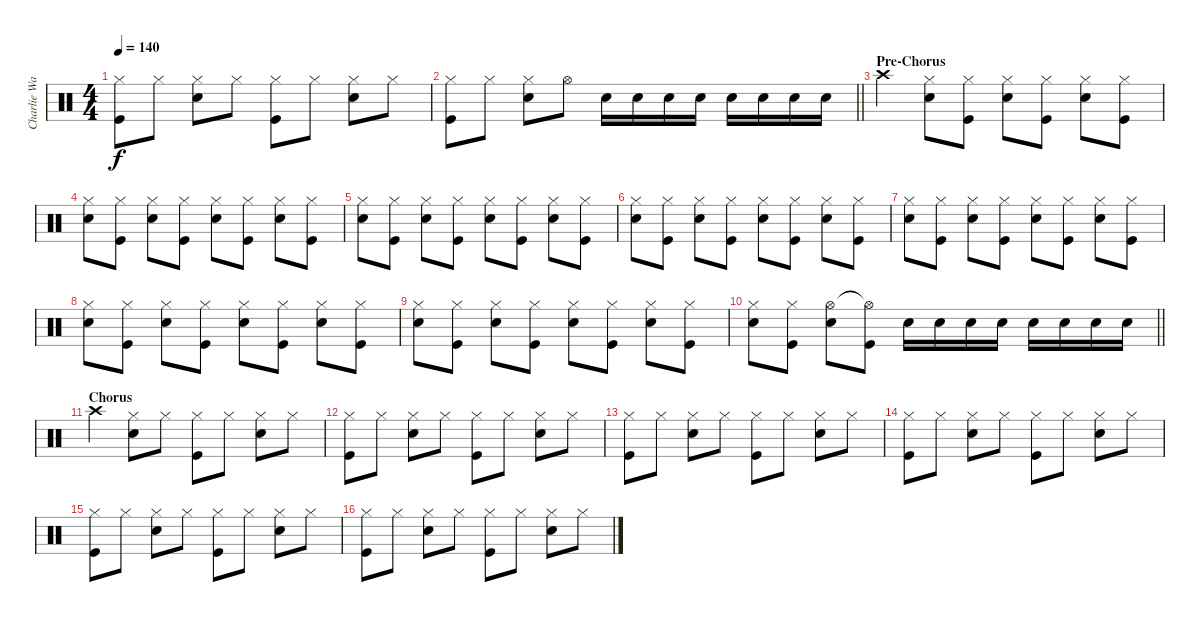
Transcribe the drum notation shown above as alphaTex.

\track ("Charlie Watts" "Charlie Wa") {instrument percussion}
\staff {score}
\articulation defaults
\ts (4 4)
\tempo 140
\clef neutral
\ks c
("Kick (hit)" "Hi-Hat (closed)").8{dy f} "Hi-Hat (closed)".8 ("Snare (hit) 2" "Hi-Hat (closed)").8 "Hi-Hat (closed)".8 ("Kick (hit)" "Hi-Hat (closed)").8 "Hi-Hat (closed)".8 ("Snare (hit) 2" "Hi-Hat (closed)").8 "Hi-Hat (closed)".8 |
\barLineRight lightlight
("Kick (hit)" "Hi-Hat (closed)").8 "Hi-Hat (closed)".8 ("Snare (hit) 2" "Hi-Hat (closed)").8 "Hi-Hat (open)".8 "Snare (hit) 2".16 "Snare (hit) 2".16 "Snare (hit) 2".16 "Snare (hit) 2".16 "Snare (hit) 2".16 "Snare (hit) 2".16 "Snare (hit) 2".16 "Snare (hit) 2".16 |
\section ("" "Pre-Chorus")
"Crash high (hit)".4 ("Snare (hit) 2" "Hi-Hat (closed)").8 ("Kick (hit)" "Hi-Hat (closed)").8 ("Snare (hit) 2" "Hi-Hat (closed)").8 ("Kick (hit)" "Hi-Hat (closed)").8 ("Snare (hit) 2" "Hi-Hat (closed)").8 ("Kick (hit)" "Hi-Hat (closed)").8 |
("Snare (hit) 2" "Hi-Hat (closed)").8 ("Kick (hit)" "Hi-Hat (closed)").8 ("Snare (hit) 2" "Hi-Hat (closed)").8 ("Kick (hit)" "Hi-Hat (closed)").8 ("Snare (hit) 2" "Hi-Hat (closed)").8 ("Kick (hit)" "Hi-Hat (closed)").8 ("Snare (hit) 2" "Hi-Hat (closed)").8 ("Kick (hit)" "Hi-Hat (closed)").8 |
("Snare (hit) 2" "Hi-Hat (closed)").8 ("Kick (hit)" "Hi-Hat (closed)").8 ("Snare (hit) 2" "Hi-Hat (closed)").8 ("Kick (hit)" "Hi-Hat (closed)").8 ("Snare (hit) 2" "Hi-Hat (closed)").8 ("Kick (hit)" "Hi-Hat (closed)").8 ("Snare (hit) 2" "Hi-Hat (closed)").8 ("Kick (hit)" "Hi-Hat (closed)").8 |
("Snare (hit) 2" "Hi-Hat (closed)").8 ("Kick (hit)" "Hi-Hat (closed)").8 ("Snare (hit) 2" "Hi-Hat (closed)").8 ("Kick (hit)" "Hi-Hat (closed)").8 ("Snare (hit) 2" "Hi-Hat (closed)").8 ("Kick (hit)" "Hi-Hat (closed)").8 ("Snare (hit) 2" "Hi-Hat (closed)").8 ("Kick (hit)" "Hi-Hat (closed)").8 |
("Snare (hit) 2" "Hi-Hat (closed)").8 ("Kick (hit)" "Hi-Hat (closed)").8 ("Snare (hit) 2" "Hi-Hat (closed)").8 ("Kick (hit)" "Hi-Hat (closed)").8 ("Snare (hit) 2" "Hi-Hat (closed)").8 ("Kick (hit)" "Hi-Hat (closed)").8 ("Snare (hit) 2" "Hi-Hat (closed)").8 ("Kick (hit)" "Hi-Hat (closed)").8 |
("Snare (hit) 2" "Hi-Hat (closed)").8 ("Kick (hit)" "Hi-Hat (closed)").8 ("Snare (hit) 2" "Hi-Hat (closed)").8 ("Kick (hit)" "Hi-Hat (closed)").8 ("Snare (hit) 2" "Hi-Hat (closed)").8 ("Kick (hit)" "Hi-Hat (closed)").8 ("Snare (hit) 2" "Hi-Hat (closed)").8 ("Kick (hit)" "Hi-Hat (closed)").8 |
("Snare (hit) 2" "Hi-Hat (closed)").8 ("Kick (hit)" "Hi-Hat (closed)").8 ("Snare (hit) 2" "Hi-Hat (closed)").8 ("Kick (hit)" "Hi-Hat (closed)").8 ("Snare (hit) 2" "Hi-Hat (closed)").8 ("Kick (hit)" "Hi-Hat (closed)").8 ("Snare (hit) 2" "Hi-Hat (closed)").8 ("Kick (hit)" "Hi-Hat (closed)").8 |
\barLineRight lightlight
("Snare (hit) 2" "Hi-Hat (closed)").8 ("Kick (hit)" "Hi-Hat (closed)").8 ("Snare (hit) 2" "Hi-Hat (open)").8 ("Kick (hit)" "Hi-Hat (open)"{t}).8 "Snare (hit) 2".16 "Snare (hit) 2".16 "Snare (hit) 2".16 "Snare (hit) 2".16 "Snare (hit) 2".16 "Snare (hit) 2".16 "Snare (hit) 2".16 "Snare (hit) 2".16 |
\section ("" "Chorus")
"Crash high (hit)".4 ("Snare (hit) 2" "Hi-Hat (closed)").8 "Hi-Hat (closed)".8 ("Kick (hit)" "Hi-Hat (closed)").8 "Hi-Hat (closed)".8 ("Snare (hit) 2" "Hi-Hat (closed)").8 "Hi-Hat (closed)".8 |
("Kick (hit)" "Hi-Hat (closed)").8 "Hi-Hat (closed)".8 ("Snare (hit) 2" "Hi-Hat (closed)").8 "Hi-Hat (closed)".8 ("Kick (hit)" "Hi-Hat (closed)").8 "Hi-Hat (closed)".8 ("Snare (hit) 2" "Hi-Hat (closed)").8 "Hi-Hat (closed)".8 |
("Kick (hit)" "Hi-Hat (closed)").8 "Hi-Hat (closed)".8 ("Snare (hit) 2" "Hi-Hat (closed)").8 "Hi-Hat (closed)".8 ("Kick (hit)" "Hi-Hat (closed)").8 "Hi-Hat (closed)".8 ("Snare (hit) 2" "Hi-Hat (closed)").8 "Hi-Hat (closed)".8 |
("Kick (hit)" "Hi-Hat (closed)").8 "Hi-Hat (closed)".8 ("Snare (hit) 2" "Hi-Hat (closed)").8 "Hi-Hat (closed)".8 ("Kick (hit)" "Hi-Hat (closed)").8 "Hi-Hat (closed)".8 ("Snare (hit) 2" "Hi-Hat (closed)").8 "Hi-Hat (closed)".8 |
("Kick (hit)" "Hi-Hat (closed)").8 "Hi-Hat (closed)".8 ("Snare (hit) 2" "Hi-Hat (closed)").8 "Hi-Hat (closed)".8 ("Kick (hit)" "Hi-Hat (closed)").8 "Hi-Hat (closed)".8 ("Snare (hit) 2" "Hi-Hat (closed)").8 "Hi-Hat (closed)".8 |
("Kick (hit)" "Hi-Hat (closed)").8 "Hi-Hat (closed)".8 ("Snare (hit) 2" "Hi-Hat (closed)").8 "Hi-Hat (closed)".8 ("Kick (hit)" "Hi-Hat (closed)").8 "Hi-Hat (closed)".8 ("Snare (hit) 2" "Hi-Hat (closed)").8 "Hi-Hat (closed)".8
